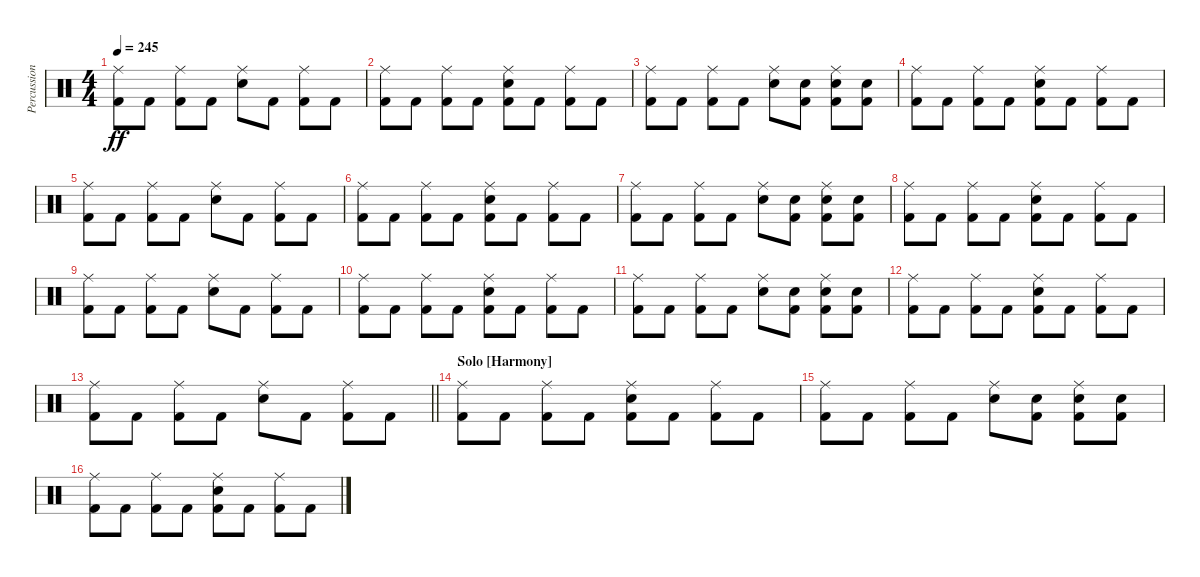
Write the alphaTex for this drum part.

\track ("Percussion" "Percussion") {instrument percussion}
\staff {score}
\articulation defaults
\ts (4 4)
\tempo 245
\clef neutral
\ks c
("Ride (middle)" "Kick (hit) 2").8{dy ff} "Kick (hit) 2".8 ("Ride (middle)" "Kick (hit) 2").8 "Kick (hit) 2".8 ("Ride (middle)" "Electric Snare (hit)").8 "Kick (hit) 2".8 ("Ride (middle)" "Kick (hit) 2").8 "Kick (hit) 2".8 |
("Ride (middle)" "Kick (hit) 2").8 "Kick (hit) 2".8 ("Ride (middle)" "Kick (hit) 2").8 "Kick (hit) 2".8 ("Ride (middle)" "Electric Snare (hit)" "Kick (hit) 2").8 "Kick (hit) 2".8 ("Ride (middle)" "Kick (hit) 2").8 "Kick (hit) 2".8 |
("Ride (middle)" "Kick (hit) 2").8 "Kick (hit) 2".8 ("Ride (middle)" "Kick (hit) 2").8 "Kick (hit) 2".8 ("Ride (middle)" "Electric Snare (hit)").8 ("Electric Snare (hit)" "Kick (hit) 2").8 ("Ride (middle)" "Electric Snare (hit)" "Kick (hit) 2").8 ("Electric Snare (hit)" "Kick (hit) 2").8 |
("Ride (middle)" "Kick (hit) 2").8 "Kick (hit) 2".8 ("Ride (middle)" "Kick (hit) 2").8 "Kick (hit) 2".8 ("Ride (middle)" "Electric Snare (hit)" "Kick (hit) 2").8 "Kick (hit) 2".8 ("Ride (middle)" "Kick (hit) 2").8 "Kick (hit) 2".8 |
("Ride (middle)" "Kick (hit) 2").8 "Kick (hit) 2".8 ("Ride (middle)" "Kick (hit) 2").8 "Kick (hit) 2".8 ("Ride (middle)" "Electric Snare (hit)").8 "Kick (hit) 2".8 ("Ride (middle)" "Kick (hit) 2").8 "Kick (hit) 2".8 |
("Ride (middle)" "Kick (hit) 2").8 "Kick (hit) 2".8 ("Ride (middle)" "Kick (hit) 2").8 "Kick (hit) 2".8 ("Ride (middle)" "Electric Snare (hit)" "Kick (hit) 2").8 "Kick (hit) 2".8 ("Ride (middle)" "Kick (hit) 2").8 "Kick (hit) 2".8 |
("Ride (middle)" "Kick (hit) 2").8 "Kick (hit) 2".8 ("Ride (middle)" "Kick (hit) 2").8 "Kick (hit) 2".8 ("Ride (middle)" "Electric Snare (hit)").8 ("Electric Snare (hit)" "Kick (hit) 2").8 ("Ride (middle)" "Electric Snare (hit)" "Kick (hit) 2").8 ("Electric Snare (hit)" "Kick (hit) 2").8 |
("Ride (middle)" "Kick (hit) 2").8 "Kick (hit) 2".8 ("Ride (middle)" "Kick (hit) 2").8 "Kick (hit) 2".8 ("Ride (middle)" "Electric Snare (hit)" "Kick (hit) 2").8 "Kick (hit) 2".8 ("Ride (middle)" "Kick (hit) 2").8 "Kick (hit) 2".8 |
("Ride (middle)" "Kick (hit) 2").8 "Kick (hit) 2".8 ("Ride (middle)" "Kick (hit) 2").8 "Kick (hit) 2".8 ("Ride (middle)" "Electric Snare (hit)").8 "Kick (hit) 2".8 ("Ride (middle)" "Kick (hit) 2").8 "Kick (hit) 2".8 |
("Ride (middle)" "Kick (hit) 2").8 "Kick (hit) 2".8 ("Ride (middle)" "Kick (hit) 2").8 "Kick (hit) 2".8 ("Ride (middle)" "Electric Snare (hit)" "Kick (hit) 2").8 "Kick (hit) 2".8 ("Ride (middle)" "Kick (hit) 2").8 "Kick (hit) 2".8 |
("Ride (middle)" "Kick (hit) 2").8 "Kick (hit) 2".8 ("Ride (middle)" "Kick (hit) 2").8 "Kick (hit) 2".8 ("Ride (middle)" "Electric Snare (hit)").8 ("Electric Snare (hit)" "Kick (hit) 2").8 ("Ride (middle)" "Electric Snare (hit)" "Kick (hit) 2").8 ("Electric Snare (hit)" "Kick (hit) 2").8 |
("Ride (middle)" "Kick (hit) 2").8 "Kick (hit) 2".8 ("Ride (middle)" "Kick (hit) 2").8 "Kick (hit) 2".8 ("Ride (middle)" "Electric Snare (hit)" "Kick (hit) 2").8 "Kick (hit) 2".8 ("Ride (middle)" "Kick (hit) 2").8 "Kick (hit) 2".8 |
\barLineRight lightlight
("Ride (middle)" "Kick (hit) 2").8 "Kick (hit) 2".8 ("Ride (middle)" "Kick (hit) 2").8 "Kick (hit) 2".8 ("Ride (middle)" "Electric Snare (hit)").8 "Kick (hit) 2".8 ("Ride (middle)" "Kick (hit) 2").8 "Kick (hit) 2".8 |
\section ("" "Solo [Harmony]")
("Ride (middle)" "Kick (hit) 2").8 "Kick (hit) 2".8 ("Ride (middle)" "Kick (hit) 2").8 "Kick (hit) 2".8 ("Ride (middle)" "Electric Snare (hit)" "Kick (hit) 2").8 "Kick (hit) 2".8 ("Ride (middle)" "Kick (hit) 2").8 "Kick (hit) 2".8 |
("Ride (middle)" "Kick (hit) 2").8 "Kick (hit) 2".8 ("Ride (middle)" "Kick (hit) 2").8 "Kick (hit) 2".8 ("Ride (middle)" "Electric Snare (hit)").8 ("Electric Snare (hit)" "Kick (hit) 2").8 ("Ride (middle)" "Electric Snare (hit)" "Kick (hit) 2").8 ("Electric Snare (hit)" "Kick (hit) 2").8 |
("Ride (middle)" "Kick (hit) 2").8 "Kick (hit) 2".8 ("Ride (middle)" "Kick (hit) 2").8 "Kick (hit) 2".8 ("Ride (middle)" "Electric Snare (hit)" "Kick (hit) 2").8 "Kick (hit) 2".8 ("Ride (middle)" "Kick (hit) 2").8 "Kick (hit) 2".8
